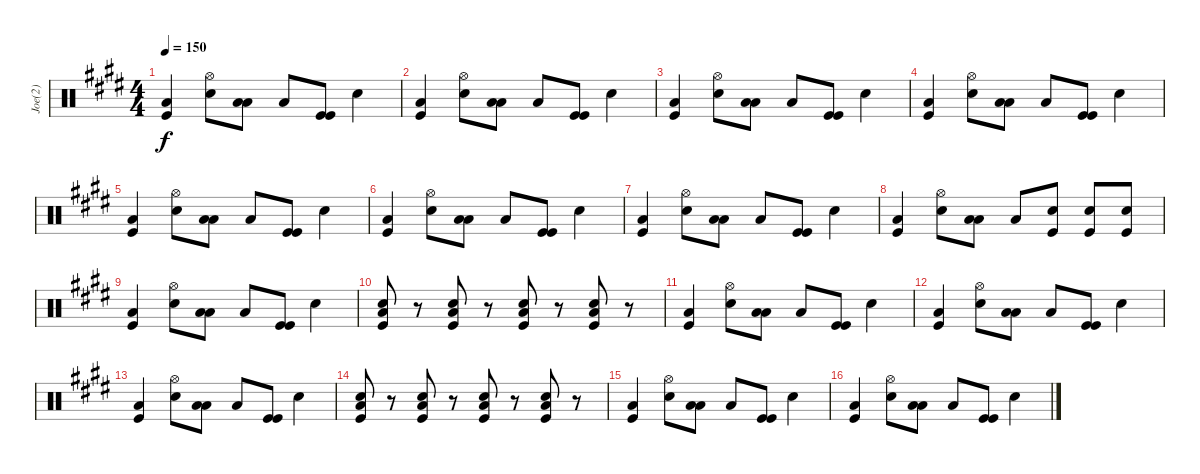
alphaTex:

\track ("Joe(2)" "Joe(2)") {instrument percussion}
\staff {score}
\articulation defaults
\ts (4 4)
\tempo 150
\clef neutral
\ks c#minor
("Kick (hit)" "Low Floor Tom (hit)").4{dy f} ("Snare (hit) 2" "Hi-Hat (open)").8 ("Low Tom (hit)" "Low Floor Tom (hit)").8 "Low Floor Tom (hit)".8 ("Kick (hit)" "Kick (hit)").8 "Snare (hit) 2".4 |
("Kick (hit)" "Low Floor Tom (hit)").4 ("Snare (hit) 2" "Hi-Hat (open)").8 ("Low Tom (hit)" "Low Floor Tom (hit)").8 "Low Floor Tom (hit)".8 ("Kick (hit)" "Kick (hit)").8 "Snare (hit) 2".4 |
("Kick (hit)" "Low Floor Tom (hit)").4 ("Snare (hit) 2" "Hi-Hat (open)").8 ("Low Tom (hit)" "Low Floor Tom (hit)").8 "Low Floor Tom (hit)".8 ("Kick (hit)" "Kick (hit)").8 "Snare (hit) 2".4 |
("Kick (hit)" "Low Floor Tom (hit)").4 ("Snare (hit) 2" "Hi-Hat (open)").8 ("Low Tom (hit)" "Low Floor Tom (hit)").8 "Low Floor Tom (hit)".8 ("Kick (hit)" "Kick (hit)").8 "Snare (hit) 2".4 |
("Kick (hit)" "Low Floor Tom (hit)").4 ("Snare (hit) 2" "Hi-Hat (open)").8 ("Low Tom (hit)" "Low Floor Tom (hit)").8 "Low Floor Tom (hit)".8 ("Kick (hit)" "Kick (hit)").8 "Snare (hit) 2".4 |
("Kick (hit)" "Low Floor Tom (hit)").4 ("Snare (hit) 2" "Hi-Hat (open)").8 ("Low Tom (hit)" "Low Floor Tom (hit)").8 "Low Floor Tom (hit)".8 ("Kick (hit)" "Kick (hit)").8 "Snare (hit) 2".4 |
("Kick (hit)" "Low Floor Tom (hit)").4 ("Snare (hit) 2" "Hi-Hat (open)").8 ("Low Tom (hit)" "Low Floor Tom (hit)").8 "Low Floor Tom (hit)".8 ("Kick (hit)" "Kick (hit)").8 "Snare (hit) 2".4 |
("Kick (hit)" "Low Floor Tom (hit)").4 ("Snare (hit) 2" "Hi-Hat (open)").8 ("Low Tom (hit)" "Low Floor Tom (hit)").8 "Low Floor Tom (hit)".8 ("Snare (hit) 2" "Kick (hit)").8 ("Snare (hit) 2" "Kick (hit)").8 ("Kick (hit)" "Snare (hit) 2").8 |
("Kick (hit)" "Low Floor Tom (hit)").4 ("Snare (hit) 2" "Hi-Hat (open)").8 ("Low Tom (hit)" "Low Floor Tom (hit)").8 "Low Floor Tom (hit)".8 ("Kick (hit)" "Kick (hit)").8 "Snare (hit) 2".4 |
("Snare (hit) 2" "Kick (hit)" "Low Floor Tom (hit)").8 r.8 ("Snare (hit) 2" "Kick (hit)" "Low Floor Tom (hit)").8 r.8 ("Snare (hit) 2" "Kick (hit)" "Low Floor Tom (hit)").8 r.8 ("Snare (hit) 2" "Kick (hit)" "Low Floor Tom (hit)").8 r.8 |
("Kick (hit)" "Low Floor Tom (hit)").4 ("Snare (hit) 2" "Hi-Hat (open)").8 ("Low Tom (hit)" "Low Floor Tom (hit)").8 "Low Floor Tom (hit)".8 ("Kick (hit)" "Kick (hit)").8 "Snare (hit) 2".4 |
("Kick (hit)" "Low Floor Tom (hit)").4 ("Snare (hit) 2" "Hi-Hat (open)").8 ("Low Tom (hit)" "Low Floor Tom (hit)").8 "Low Floor Tom (hit)".8 ("Kick (hit)" "Kick (hit)").8 "Snare (hit) 2".4 |
("Kick (hit)" "Low Floor Tom (hit)").4 ("Snare (hit) 2" "Hi-Hat (open)").8 ("Low Tom (hit)" "Low Floor Tom (hit)").8 "Low Floor Tom (hit)".8 ("Kick (hit)" "Kick (hit)").8 "Snare (hit) 2".4 |
("Snare (hit) 2" "Kick (hit)" "Low Floor Tom (hit)").8 r.8 ("Snare (hit) 2" "Kick (hit)" "Low Floor Tom (hit)").8 r.8 ("Snare (hit) 2" "Kick (hit)" "Low Floor Tom (hit)").8 r.8 ("Snare (hit) 2" "Kick (hit)" "Low Floor Tom (hit)").8 r.8 |
("Kick (hit)" "Low Floor Tom (hit)").4 ("Snare (hit) 2" "Hi-Hat (open)").8 ("Low Tom (hit)" "Low Floor Tom (hit)").8 "Low Floor Tom (hit)".8 ("Kick (hit)" "Kick (hit)").8 "Snare (hit) 2".4 |
("Kick (hit)" "Low Floor Tom (hit)").4 ("Snare (hit) 2" "Hi-Hat (open)").8 ("Low Tom (hit)" "Low Floor Tom (hit)").8 "Low Floor Tom (hit)".8 ("Kick (hit)" "Kick (hit)").8 "Snare (hit) 2".4
